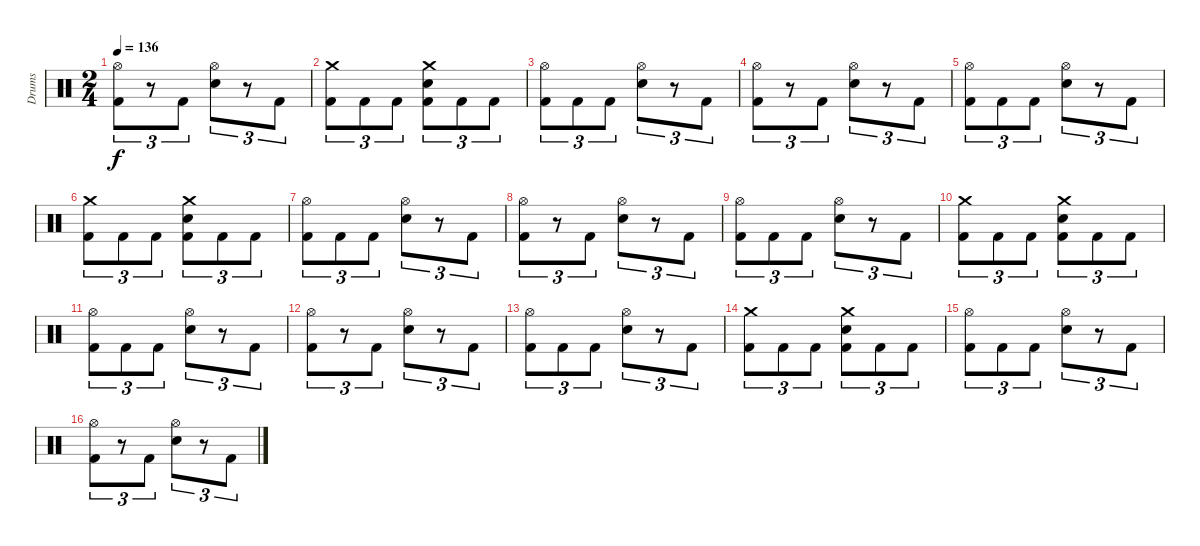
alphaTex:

\track ("Drums" "Drums") {instrument percussion}
\staff {score}
\articulation defaults
\ts (2 4)
\tempo 136
\clef neutral
\ks c
("Hi-Hat (open)" "Kick (hit) 2").8{tu (3 2) dy f} r.8{tu (3 2)} "Kick (hit) 2".8{tu (3 2)} ("Hi-Hat (open)" "Electric Snare (hit)").8{tu (3 2)} r.8{tu (3 2)} "Kick (hit) 2".8{tu (3 2)} |
("Crash medium (hit)" "Kick (hit) 2").8{tu (3 2)} "Kick (hit) 2".8{tu (3 2)} "Kick (hit) 2".8{tu (3 2)} ("Crash medium (hit)" "Electric Snare (hit)" "Kick (hit) 2").8{tu (3 2)} "Kick (hit) 2".8{tu (3 2)} "Kick (hit) 2".8{tu (3 2)} |
("Hi-Hat (open)" "Kick (hit) 2").8{tu (3 2)} "Kick (hit) 2".8{tu (3 2)} "Kick (hit) 2".8{tu (3 2)} ("Hi-Hat (open)" "Electric Snare (hit)").8{tu (3 2)} r.8{tu (3 2)} "Kick (hit) 2".8{tu (3 2)} |
("Hi-Hat (open)" "Kick (hit) 2").8{tu (3 2)} r.8{tu (3 2)} "Kick (hit) 2".8{tu (3 2)} ("Hi-Hat (open)" "Electric Snare (hit)").8{tu (3 2)} r.8{tu (3 2)} "Kick (hit) 2".8{tu (3 2)} |
("Hi-Hat (open)" "Kick (hit) 2").8{tu (3 2)} "Kick (hit) 2".8{tu (3 2)} "Kick (hit) 2".8{tu (3 2)} ("Hi-Hat (open)" "Electric Snare (hit)").8{tu (3 2)} r.8{tu (3 2)} "Kick (hit) 2".8{tu (3 2)} |
("Crash medium (hit)" "Kick (hit) 2").8{tu (3 2)} "Kick (hit) 2".8{tu (3 2)} "Kick (hit) 2".8{tu (3 2)} ("Crash medium (hit)" "Electric Snare (hit)" "Kick (hit) 2").8{tu (3 2)} "Kick (hit) 2".8{tu (3 2)} "Kick (hit) 2".8{tu (3 2)} |
("Hi-Hat (open)" "Kick (hit) 2").8{tu (3 2)} "Kick (hit) 2".8{tu (3 2)} "Kick (hit) 2".8{tu (3 2)} ("Hi-Hat (open)" "Electric Snare (hit)").8{tu (3 2)} r.8{tu (3 2)} "Kick (hit) 2".8{tu (3 2)} |
("Hi-Hat (open)" "Kick (hit) 2").8{tu (3 2)} r.8{tu (3 2)} "Kick (hit) 2".8{tu (3 2)} ("Hi-Hat (open)" "Electric Snare (hit)").8{tu (3 2)} r.8{tu (3 2)} "Kick (hit) 2".8{tu (3 2)} |
("Hi-Hat (open)" "Kick (hit) 2").8{tu (3 2)} "Kick (hit) 2".8{tu (3 2)} "Kick (hit) 2".8{tu (3 2)} ("Hi-Hat (open)" "Electric Snare (hit)").8{tu (3 2)} r.8{tu (3 2)} "Kick (hit) 2".8{tu (3 2)} |
("Crash medium (hit)" "Kick (hit) 2").8{tu (3 2)} "Kick (hit) 2".8{tu (3 2)} "Kick (hit) 2".8{tu (3 2)} ("Crash medium (hit)" "Electric Snare (hit)" "Kick (hit) 2").8{tu (3 2)} "Kick (hit) 2".8{tu (3 2)} "Kick (hit) 2".8{tu (3 2)} |
("Hi-Hat (open)" "Kick (hit) 2").8{tu (3 2)} "Kick (hit) 2".8{tu (3 2)} "Kick (hit) 2".8{tu (3 2)} ("Hi-Hat (open)" "Electric Snare (hit)").8{tu (3 2)} r.8{tu (3 2)} "Kick (hit) 2".8{tu (3 2)} |
("Hi-Hat (open)" "Kick (hit) 2").8{tu (3 2)} r.8{tu (3 2)} "Kick (hit) 2".8{tu (3 2)} ("Hi-Hat (open)" "Electric Snare (hit)").8{tu (3 2)} r.8{tu (3 2)} "Kick (hit) 2".8{tu (3 2)} |
("Hi-Hat (open)" "Kick (hit) 2").8{tu (3 2)} "Kick (hit) 2".8{tu (3 2)} "Kick (hit) 2".8{tu (3 2)} ("Hi-Hat (open)" "Electric Snare (hit)").8{tu (3 2)} r.8{tu (3 2)} "Kick (hit) 2".8{tu (3 2)} |
("Crash medium (hit)" "Kick (hit) 2").8{tu (3 2)} "Kick (hit) 2".8{tu (3 2)} "Kick (hit) 2".8{tu (3 2)} ("Crash medium (hit)" "Electric Snare (hit)" "Kick (hit) 2").8{tu (3 2)} "Kick (hit) 2".8{tu (3 2)} "Kick (hit) 2".8{tu (3 2)} |
("Hi-Hat (open)" "Kick (hit) 2").8{tu (3 2)} "Kick (hit) 2".8{tu (3 2)} "Kick (hit) 2".8{tu (3 2)} ("Hi-Hat (open)" "Electric Snare (hit)").8{tu (3 2)} r.8{tu (3 2)} "Kick (hit) 2".8{tu (3 2)} |
("Hi-Hat (open)" "Kick (hit) 2").8{tu (3 2)} r.8{tu (3 2)} "Kick (hit) 2".8{tu (3 2)} ("Hi-Hat (open)" "Electric Snare (hit)").8{tu (3 2)} r.8{tu (3 2)} "Kick (hit) 2".8{tu (3 2)}
